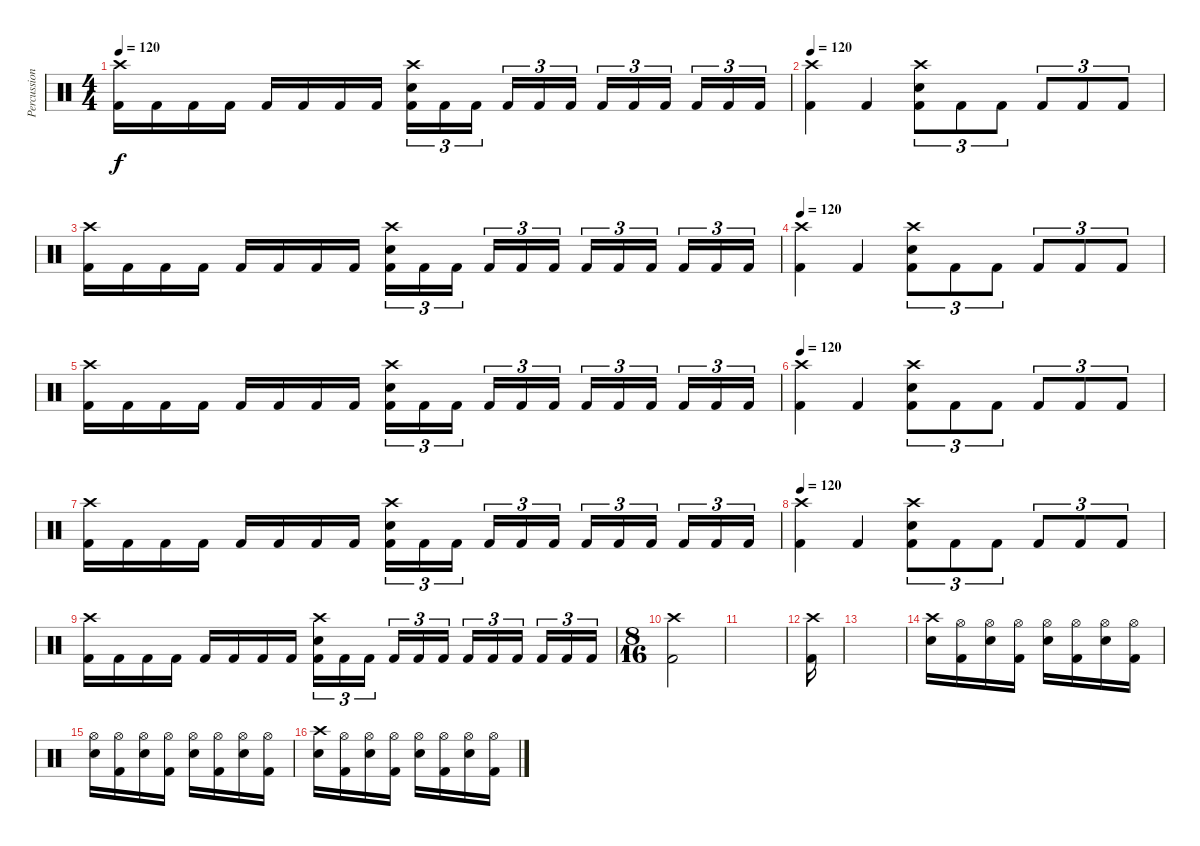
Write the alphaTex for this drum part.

\track ("Percussion" "Percussion") {instrument percussion}
\staff {score}
\articulation defaults
\ts (4 4)
\tempo 120
\clef neutral
\ks c
("Crash high (hit)" "Kick (hit) 2").16{dy f} "Kick (hit) 2".16 "Kick (hit) 2".16 "Kick (hit) 2".16 "Kick (hit) 2".16 "Kick (hit) 2".16 "Kick (hit) 2".16 "Kick (hit) 2".16 ("Electric Snare (hit)" "Crash high (hit)" "Kick (hit) 2").16{tu (3 2)} "Kick (hit) 2".16{tu (3 2)} "Kick (hit) 2".16{tu (3 2) beam splitsecondary} "Kick (hit) 2".16{tu (3 2)} "Kick (hit) 2".16{tu (3 2)} "Kick (hit) 2".16{tu (3 2)} "Kick (hit) 2".16{tu (3 2)} "Kick (hit) 2".16{tu (3 2)} "Kick (hit) 2".16{tu (3 2) beam splitsecondary} "Kick (hit) 2".16{tu (3 2)} "Kick (hit) 2".16{tu (3 2)} "Kick (hit) 2".16{tu (3 2)} |
\tempo 120
("Crash high (hit)" "Kick (hit) 2").4 "Kick (hit) 2".4 ("Crash high (hit)" "Electric Snare (hit)" "Kick (hit) 2").8{tu (3 2)} "Kick (hit) 2".8{tu (3 2)} "Kick (hit) 2".8{tu (3 2)} "Kick (hit) 2".8{tu (3 2)} "Kick (hit) 2".8{tu (3 2)} "Kick (hit) 2".8{tu (3 2)} |
("Crash high (hit)" "Kick (hit) 2").16 "Kick (hit) 2".16 "Kick (hit) 2".16 "Kick (hit) 2".16 "Kick (hit) 2".16 "Kick (hit) 2".16 "Kick (hit) 2".16 "Kick (hit) 2".16 ("Electric Snare (hit)" "Crash high (hit)" "Kick (hit) 2").16{tu (3 2)} "Kick (hit) 2".16{tu (3 2)} "Kick (hit) 2".16{tu (3 2) beam splitsecondary} "Kick (hit) 2".16{tu (3 2)} "Kick (hit) 2".16{tu (3 2)} "Kick (hit) 2".16{tu (3 2)} "Kick (hit) 2".16{tu (3 2)} "Kick (hit) 2".16{tu (3 2)} "Kick (hit) 2".16{tu (3 2) beam splitsecondary} "Kick (hit) 2".16{tu (3 2)} "Kick (hit) 2".16{tu (3 2)} "Kick (hit) 2".16{tu (3 2)} |
\tempo 120
("Crash high (hit)" "Kick (hit) 2").4 "Kick (hit) 2".4 ("Crash high (hit)" "Electric Snare (hit)" "Kick (hit) 2").8{tu (3 2)} "Kick (hit) 2".8{tu (3 2)} "Kick (hit) 2".8{tu (3 2)} "Kick (hit) 2".8{tu (3 2)} "Kick (hit) 2".8{tu (3 2)} "Kick (hit) 2".8{tu (3 2)} |
("Crash high (hit)" "Kick (hit) 2").16 "Kick (hit) 2".16 "Kick (hit) 2".16 "Kick (hit) 2".16 "Kick (hit) 2".16 "Kick (hit) 2".16 "Kick (hit) 2".16 "Kick (hit) 2".16 ("Electric Snare (hit)" "Crash high (hit)" "Kick (hit) 2").16{tu (3 2)} "Kick (hit) 2".16{tu (3 2)} "Kick (hit) 2".16{tu (3 2) beam splitsecondary} "Kick (hit) 2".16{tu (3 2)} "Kick (hit) 2".16{tu (3 2)} "Kick (hit) 2".16{tu (3 2)} "Kick (hit) 2".16{tu (3 2)} "Kick (hit) 2".16{tu (3 2)} "Kick (hit) 2".16{tu (3 2) beam splitsecondary} "Kick (hit) 2".16{tu (3 2)} "Kick (hit) 2".16{tu (3 2)} "Kick (hit) 2".16{tu (3 2)} |
\tempo 120
("Crash high (hit)" "Kick (hit) 2").4 "Kick (hit) 2".4 ("Crash high (hit)" "Electric Snare (hit)" "Kick (hit) 2").8{tu (3 2)} "Kick (hit) 2".8{tu (3 2)} "Kick (hit) 2".8{tu (3 2)} "Kick (hit) 2".8{tu (3 2)} "Kick (hit) 2".8{tu (3 2)} "Kick (hit) 2".8{tu (3 2)} |
("Crash high (hit)" "Kick (hit) 2").16 "Kick (hit) 2".16 "Kick (hit) 2".16 "Kick (hit) 2".16 "Kick (hit) 2".16 "Kick (hit) 2".16 "Kick (hit) 2".16 "Kick (hit) 2".16 ("Electric Snare (hit)" "Crash high (hit)" "Kick (hit) 2").16{tu (3 2)} "Kick (hit) 2".16{tu (3 2)} "Kick (hit) 2".16{tu (3 2) beam splitsecondary} "Kick (hit) 2".16{tu (3 2)} "Kick (hit) 2".16{tu (3 2)} "Kick (hit) 2".16{tu (3 2)} "Kick (hit) 2".16{tu (3 2)} "Kick (hit) 2".16{tu (3 2)} "Kick (hit) 2".16{tu (3 2) beam splitsecondary} "Kick (hit) 2".16{tu (3 2)} "Kick (hit) 2".16{tu (3 2)} "Kick (hit) 2".16{tu (3 2)} |
\tempo 120
("Crash high (hit)" "Kick (hit) 2").4 "Kick (hit) 2".4 ("Crash high (hit)" "Electric Snare (hit)" "Kick (hit) 2").8{tu (3 2)} "Kick (hit) 2".8{tu (3 2)} "Kick (hit) 2".8{tu (3 2)} "Kick (hit) 2".8{tu (3 2)} "Kick (hit) 2".8{tu (3 2)} "Kick (hit) 2".8{tu (3 2)} |
("Crash high (hit)" "Kick (hit) 2").16 "Kick (hit) 2".16 "Kick (hit) 2".16 "Kick (hit) 2".16 "Kick (hit) 2".16 "Kick (hit) 2".16 "Kick (hit) 2".16 "Kick (hit) 2".16 ("Electric Snare (hit)" "Crash high (hit)" "Kick (hit) 2").16{tu (3 2)} "Kick (hit) 2".16{tu (3 2)} "Kick (hit) 2".16{tu (3 2) beam splitsecondary} "Kick (hit) 2".16{tu (3 2)} "Kick (hit) 2".16{tu (3 2)} "Kick (hit) 2".16{tu (3 2)} "Kick (hit) 2".16{tu (3 2)} "Kick (hit) 2".16{tu (3 2)} "Kick (hit) 2".16{tu (3 2) beam splitsecondary} "Kick (hit) 2".16{tu (3 2)} "Kick (hit) 2".16{tu (3 2)} "Kick (hit) 2".16{tu (3 2)} |
\ts (8 16)
("Crash high (hit)" "Kick (hit) 2").2 |
|
("Crash high (hit)" "Kick (hit) 2").16 |
|
("Crash high (hit)" "Electric Snare (hit)").16 ("Hi-Hat (open)" "Kick (hit) 2").16 ("Hi-Hat (open)" "Electric Snare (hit)").16 ("Hi-Hat (open)" "Kick (hit) 2").16 ("Hi-Hat (open)" "Electric Snare (hit)").16 ("Hi-Hat (open)" "Kick (hit) 2").16 ("Hi-Hat (open)" "Electric Snare (hit)").16 ("Hi-Hat (open)" "Kick (hit) 2").16 |
("Hi-Hat (open)" "Electric Snare (hit)").16 ("Hi-Hat (open)" "Kick (hit) 2").16 ("Hi-Hat (open)" "Electric Snare (hit)").16 ("Hi-Hat (open)" "Kick (hit) 2").16 ("Hi-Hat (open)" "Electric Snare (hit)").16 ("Hi-Hat (open)" "Kick (hit) 2").16 ("Hi-Hat (open)" "Electric Snare (hit)").16 ("Hi-Hat (open)" "Kick (hit) 2").16 |
("Crash high (hit)" "Electric Snare (hit)").16 ("Hi-Hat (open)" "Kick (hit) 2").16 ("Hi-Hat (open)" "Electric Snare (hit)").16 ("Hi-Hat (open)" "Kick (hit) 2").16 ("Hi-Hat (open)" "Electric Snare (hit)").16 ("Hi-Hat (open)" "Kick (hit) 2").16 ("Hi-Hat (open)" "Electric Snare (hit)").16 ("Hi-Hat (open)" "Kick (hit) 2").16
